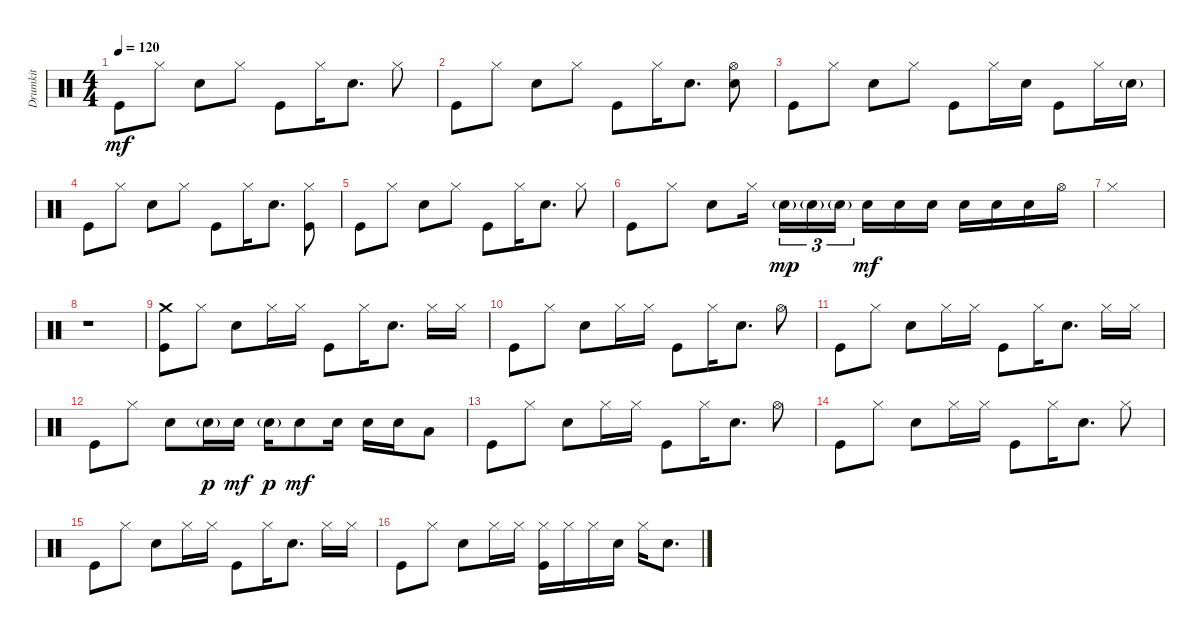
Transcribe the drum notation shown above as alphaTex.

\track ("Drumkit" "Drumkit") {instrument percussion}
\staff {score}
\articulation defaults
\ts (4 4)
\tempo 120
\clef neutral
\ks c "Kick (hit)".8{dy mf} "Hi-Hat (closed)".8 "Snare (hit) 2".8 "Hi-Hat (closed)".8 "Kick (hit)".8 "Hi-Hat (closed)".16 "Snare (hit) 2".8{d} "Hi-Hat (closed)".8
|
"Kick (hit)".8 "Hi-Hat (closed)".8 "Snare (hit) 2".8 "Hi-Hat (closed)".8 "Kick (hit)".8 "Hi-Hat (closed)".16 "Snare (hit) 2".8{d} ("Hi-Hat (open)" "Snare (hit) 2").8 |
"Kick (hit)".8 "Hi-Hat (closed)".8 "Snare (hit) 2".8 "Hi-Hat (closed)".8 "Kick (hit)".8 "Hi-Hat (closed)".16 "Snare (hit) 2".16 "Kick (hit)".8 "Hi-Hat (closed)".16 "Snare (hit) 2"{g}.16 |
"Kick (hit)".8 "Hi-Hat (closed)".8 "Snare (hit) 2".8 "Hi-Hat (closed)".8 "Kick (hit)".8 "Hi-Hat (closed)".16 "Snare (hit) 2".8{d} ("Hi-Hat (closed)" "Kick (hit)").8 |
"Kick (hit)".8 "Hi-Hat (closed)".8 "Snare (hit) 2".8 "Hi-Hat (closed)".8 "Kick (hit)".8 "Hi-Hat (closed)".16 "Snare (hit) 2".8{d} "Hi-Hat (closed)".8 |
"Kick (hit)".8 "Hi-Hat (closed)".8 "Snare (hit) 2".8 "Hi-Hat (closed)".16 "Snare (hit) 2"{g}.16{tu (3 2) dy mp} "Snare (hit) 2"{g}.16{tu (3 2)} "Snare (hit) 2"{g}.16{tu (3 2)} "Snare (hit) 2".16{dy mf} "Snare (hit) 2".16 "Snare (hit) 2".16 "Snare (hit) 2".16 "Snare (hit) 2".16 "Snare (hit) 2".16 "Hi-Hat (open)".16 |
"Hi-Hat (closed)".1 |
r.1 |
("Crash medium (hit)" "Kick (hit)").8 "Hi-Hat (closed)".8 "Snare (hit) 2".8 "Hi-Hat (closed)".16 "Hi-Hat (closed)".16 "Kick (hit)".8 "Hi-Hat (closed)".16 "Snare (hit) 2".8{d} "Hi-Hat (closed)".16 "Hi-Hat (closed)".16 |
"Kick (hit)".8 "Hi-Hat (closed)".8 "Snare (hit) 2".8 "Hi-Hat (closed)".16 "Hi-Hat (closed)".16 "Kick (hit)".8 "Hi-Hat (closed)".16 "Snare (hit) 2".8{d} "Hi-Hat (open)".8 |
"Kick (hit)".8 "Hi-Hat (closed)".8 "Snare (hit) 2".8 "Hi-Hat (closed)".16 "Hi-Hat (closed)".16 "Kick (hit)".8 "Hi-Hat (closed)".16 "Snare (hit) 2".8{d} "Hi-Hat (closed)".16 "Hi-Hat (closed)".16 |
"Kick (hit)".8 "Hi-Hat (closed)".8 "Snare (hit) 2".8 "Snare (hit) 2"{g}.16{dy p} "Snare (hit) 2".16{dy mf} "Snare (hit) 2"{g}.16{dy p} "Snare (hit) 2".8{dy mf} "Snare (hit) 2".16 "Snare (hit) 2".16 "Snare (hit) 2".16 "Low Tom (hit)".8 |
"Kick (hit)".8 "Hi-Hat (closed)".8 "Snare (hit) 2".8 "Hi-Hat (closed)".16 "Hi-Hat (closed)".16 "Kick (hit)".8 "Hi-Hat (closed)".16 "Snare (hit) 2".8{d} "Hi-Hat (open)".8 |
"Kick (hit)".8 "Hi-Hat (closed)".8 "Snare (hit) 2".8 "Hi-Hat (closed)".16 "Hi-Hat (closed)".16 "Kick (hit)".8 "Hi-Hat (closed)".16 "Snare (hit) 2".8{d} "Hi-Hat (closed)".8 |
"Kick (hit)".8 "Hi-Hat (closed)".8 "Snare (hit) 2".8 "Hi-Hat (closed)".16 "Hi-Hat (closed)".16 "Kick (hit)".8 "Hi-Hat (closed)".16 "Snare (hit) 2".8{d} "Hi-Hat (closed)".16 "Hi-Hat (closed)".16 |
"Kick (hit)".8 "Hi-Hat (closed)".8 "Snare (hit) 2".8 "Hi-Hat (closed)".16 "Hi-Hat (closed)".16 ("Hi-Hat (closed)" "Kick (hit)").16 "Hi-Hat (closed)".16 "Hi-Hat (closed)".16 "Snare (hit) 2".16 "Hi-Hat (closed)".16 "Snare (hit) 2".8{d}
